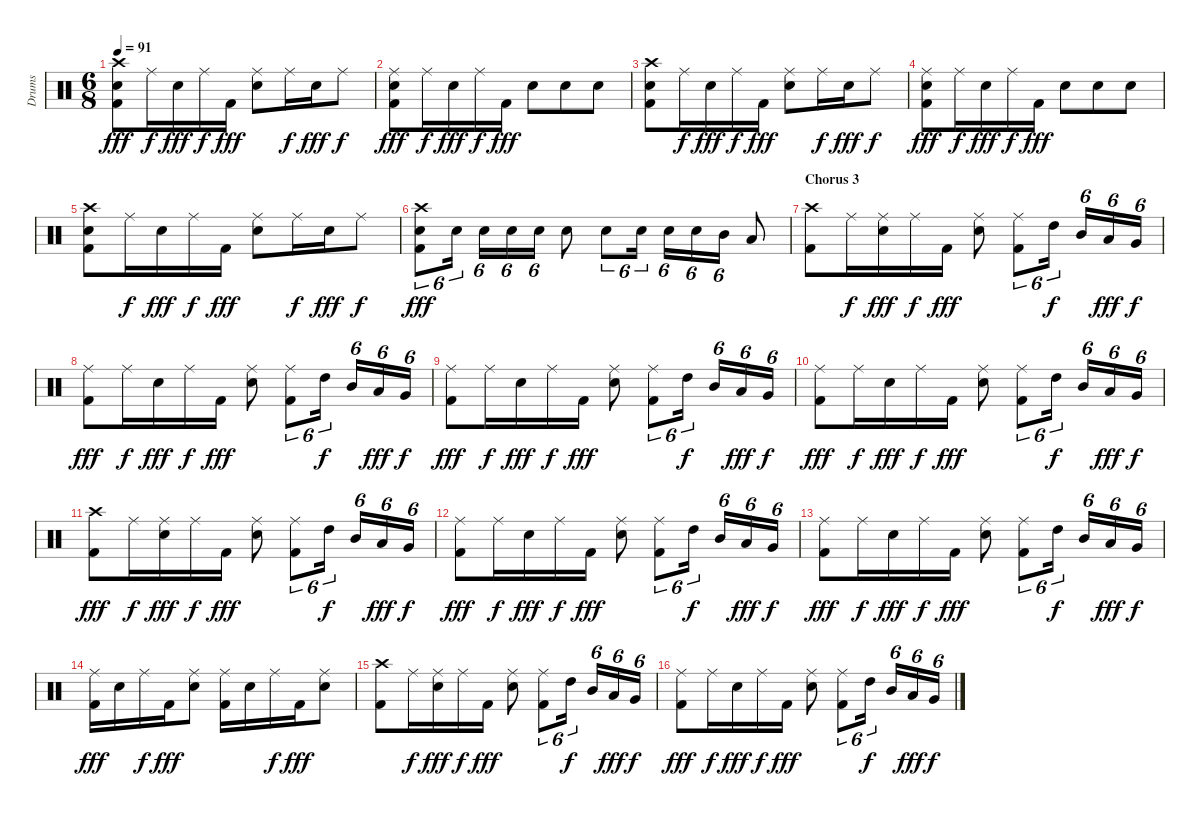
\track ("Drums" "Drums") {instrument percussion}
\staff {score}
\articulation defaults
\ts (6 8)
\tempo 91
\clef neutral
\ks c
("Crash high (hit)" "Electric Snare (hit)" "Kick (hit) 2").8{dy fff} "Ride (middle)".16{dy f} "Electric Snare (hit)".16{dy fff} "Ride (middle)".16{dy f} "Kick (hit) 2".16{dy fff} ("Ride (middle)" "Electric Snare (hit)").8 "Ride (middle)".16{dy f} "Electric Snare (hit)".16{dy fff} "Ride (middle)".8{dy f} |
("Ride (middle)" "Electric Snare (hit)" "Kick (hit) 2").8{dy fff} "Ride (middle)".16{dy f} "Electric Snare (hit)".16{dy fff} "Ride (middle)".16{dy f} "Kick (hit) 2".16{dy fff} "Electric Snare (hit)".8 "Electric Snare (hit)".8 "Electric Snare (hit)".8 |
("Crash high (hit)" "Electric Snare (hit)" "Kick (hit) 2").8 "Ride (middle)".16{dy f} "Electric Snare (hit)".16{dy fff} "Ride (middle)".16{dy f} "Kick (hit) 2".16{dy fff} ("Ride (middle)" "Electric Snare (hit)").8 "Ride (middle)".16{dy f} "Electric Snare (hit)".16{dy fff} "Ride (middle)".8{dy f} |
("Ride (middle)" "Electric Snare (hit)" "Kick (hit) 2").8{dy fff} "Ride (middle)".16{dy f} "Electric Snare (hit)".16{dy fff} "Ride (middle)".16{dy f} "Kick (hit) 2".16{dy fff} "Electric Snare (hit)".8 "Electric Snare (hit)".8 "Electric Snare (hit)".8 |
("Crash high (hit)" "Electric Snare (hit)" "Kick (hit) 2").8 "Ride (middle)".16{dy f} "Electric Snare (hit)".16{dy fff} "Ride (middle)".16{dy f} "Kick (hit) 2".16{dy fff} ("Ride (middle)" "Electric Snare (hit)").8 "Ride (middle)".16{dy f} "Electric Snare (hit)".16{dy fff} "Ride (middle)".8{dy f} |
("Crash high (hit)" "Electric Snare (hit)" "Kick (hit) 2").8{tu (6 4) dy fff} "Electric Snare (hit)".16{tu (6 4)} "Electric Snare (hit)".16{tu (6 4)} "Electric Snare (hit)".16{tu (6 4)} "Electric Snare (hit)".16{tu (6 4)} "Electric Snare (hit)".8 "Electric Snare (hit)".8{tu (6 4)} "Electric Snare (hit)".16{tu (6 4)} "Electric Snare (hit)".16{tu (6 4)} "Electric Snare (hit)".16{tu (6 4)} "Mid Tom (hit)".16{tu (6 4)} "Low Tom (hit)".8 |
\section ("" "Chorus 3")
("Crash high (hit)" "Kick (hit) 2").8 "Ride (middle)".16{dy f} ("Ride (middle)" "Electric Snare (hit)").16{dy fff} "Ride (middle)".16{dy f} "Kick (hit) 2".16{dy fff} ("Ride (middle)" "Electric Snare (hit)").8 ("Ride (middle)" "Kick (hit) 2").8{tu (6 4)} "High Tom (hit)".16{tu (6 4) dy f} "Mid Tom (hit)".16{tu (6 4)} "Low Tom (hit)".16{tu (6 4) dy fff} "Very Low Tom (hit)".16{tu (6 4) dy f} |
("Ride (middle)" "Kick (hit) 2").8{dy fff} "Ride (middle)".16{dy f} "Electric Snare (hit)".16{dy fff} "Ride (middle)".16{dy f} "Kick (hit) 2".16{dy fff} ("Ride (middle)" "Electric Snare (hit)").8 ("Ride (middle)" "Kick (hit) 2").8{tu (6 4)} "High Tom (hit)".16{tu (6 4) dy f} "Mid Tom (hit)".16{tu (6 4)} "Low Tom (hit)".16{tu (6 4) dy fff} "Very Low Tom (hit)".16{tu (6 4) dy f} |
("Ride (middle)" "Kick (hit) 2").8{dy fff} "Ride (middle)".16{dy f} "Electric Snare (hit)".16{dy fff} "Ride (middle)".16{dy f} "Kick (hit) 2".16{dy fff} ("Ride (middle)" "Electric Snare (hit)").8 ("Ride (middle)" "Kick (hit) 2").8{tu (6 4)} "High Tom (hit)".16{tu (6 4) dy f} "Mid Tom (hit)".16{tu (6 4)} "Low Tom (hit)".16{tu (6 4) dy fff} "Very Low Tom (hit)".16{tu (6 4) dy f} |
("Ride (middle)" "Kick (hit) 2").8{dy fff} "Ride (middle)".16{dy f} "Electric Snare (hit)".16{dy fff} "Ride (middle)".16{dy f} "Kick (hit) 2".16{dy fff} ("Ride (middle)" "Electric Snare (hit)").8 ("Ride (middle)" "Kick (hit) 2").8{tu (6 4)} "High Tom (hit)".16{tu (6 4) dy f} "Mid Tom (hit)".16{tu (6 4)} "Low Tom (hit)".16{tu (6 4) dy fff} "Very Low Tom (hit)".16{tu (6 4) dy f} |
("Crash high (hit)" "Kick (hit) 2").8{dy fff} "Ride (middle)".16{dy f} ("Ride (middle)" "Electric Snare (hit)").16{dy fff} "Ride (middle)".16{dy f} "Kick (hit) 2".16{dy fff} ("Ride (middle)" "Electric Snare (hit)").8 ("Ride (middle)" "Kick (hit) 2").8{tu (6 4)} "High Tom (hit)".16{tu (6 4) dy f} "Mid Tom (hit)".16{tu (6 4)} "Low Tom (hit)".16{tu (6 4) dy fff} "Very Low Tom (hit)".16{tu (6 4) dy f} |
("Ride (middle)" "Kick (hit) 2").8{dy fff} "Ride (middle)".16{dy f} "Electric Snare (hit)".16{dy fff} "Ride (middle)".16{dy f} "Kick (hit) 2".16{dy fff} ("Ride (middle)" "Electric Snare (hit)").8 ("Ride (middle)" "Kick (hit) 2").8{tu (6 4)} "High Tom (hit)".16{tu (6 4) dy f} "Mid Tom (hit)".16{tu (6 4)} "Low Tom (hit)".16{tu (6 4) dy fff} "Very Low Tom (hit)".16{tu (6 4) dy f} |
("Ride (middle)" "Kick (hit) 2").8{dy fff} "Ride (middle)".16{dy f} "Electric Snare (hit)".16{dy fff} "Ride (middle)".16{dy f} "Kick (hit) 2".16{dy fff} ("Ride (middle)" "Electric Snare (hit)").8 ("Ride (middle)" "Kick (hit) 2").8{tu (6 4)} "High Tom (hit)".16{tu (6 4) dy f} "Mid Tom (hit)".16{tu (6 4)} "Low Tom (hit)".16{tu (6 4) dy fff} "Very Low Tom (hit)".16{tu (6 4) dy f} |
("Ride (middle)" "Kick (hit) 2").16{dy fff} "Electric Snare (hit)".16 "Ride (middle)".16{dy f} "Kick (hit) 2".16{dy fff} ("Ride (middle)" "Electric Snare (hit)").8 ("Ride (middle)" "Kick (hit) 2").16 "Electric Snare (hit)".16 "Ride (middle)".16{dy f} "Kick (hit) 2".16{dy fff} ("Ride (middle)" "Electric Snare (hit)").8 |
("Crash high (hit)" "Kick (hit) 2").8 "Ride (middle)".16{dy f} ("Ride (middle)" "Electric Snare (hit)").16{dy fff} "Ride (middle)".16{dy f} "Kick (hit) 2".16{dy fff} ("Ride (middle)" "Electric Snare (hit)").8 ("Ride (middle)" "Kick (hit) 2").8{tu (6 4)} "High Tom (hit)".16{tu (6 4) dy f} "Mid Tom (hit)".16{tu (6 4)} "Low Tom (hit)".16{tu (6 4) dy fff} "Very Low Tom (hit)".16{tu (6 4) dy f} |
("Ride (middle)" "Kick (hit) 2").8{dy fff} "Ride (middle)".16{dy f} "Electric Snare (hit)".16{dy fff} "Ride (middle)".16{dy f} "Kick (hit) 2".16{dy fff} ("Ride (middle)" "Electric Snare (hit)").8 ("Ride (middle)" "Kick (hit) 2").8{tu (6 4)} "High Tom (hit)".16{tu (6 4) dy f} "Mid Tom (hit)".16{tu (6 4)} "Low Tom (hit)".16{tu (6 4) dy fff} "Very Low Tom (hit)".16{tu (6 4) dy f}
